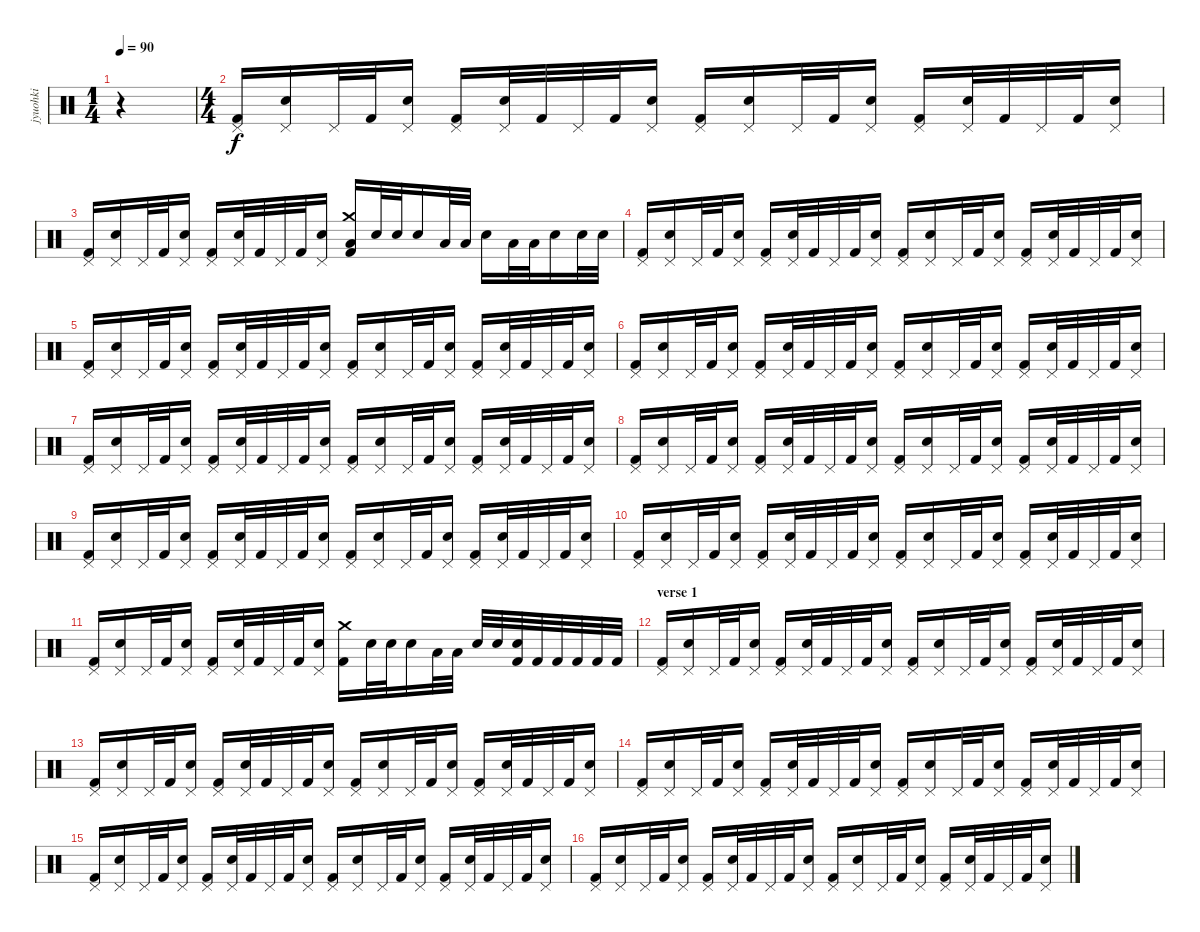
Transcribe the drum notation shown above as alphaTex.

\track ("jyuohki" "jyuohki") {instrument percussion}
\staff {score}
\articulation defaults
\ts (1 4)
\tempo 90
\clef neutral
\ks c
r.4{dy f} |
\ts (4 4)
("Pedal Hi-Hat (hit)" "Kick (hit) 2").16 ("Pedal Hi-Hat (hit)" "Electric Snare (hit)").16 "Pedal Hi-Hat (hit)".32 "Kick (hit) 2".32 ("Pedal Hi-Hat (hit)" "Electric Snare (hit)").16 ("Pedal Hi-Hat (hit)" "Kick (hit) 2").16 ("Pedal Hi-Hat (hit)" "Electric Snare (hit)").32 "Kick (hit) 2".32 "Pedal Hi-Hat (hit)".32 "Kick (hit) 2".32 ("Pedal Hi-Hat (hit)" "Electric Snare (hit)").16 ("Pedal Hi-Hat (hit)" "Kick (hit) 2").16 ("Pedal Hi-Hat (hit)" "Electric Snare (hit)").16 "Pedal Hi-Hat (hit)".32 "Kick (hit) 2".32 ("Pedal Hi-Hat (hit)" "Electric Snare (hit)").16 ("Pedal Hi-Hat (hit)" "Kick (hit) 2").16 ("Pedal Hi-Hat (hit)" "Electric Snare (hit)").32 "Kick (hit) 2".32 "Pedal Hi-Hat (hit)".32 "Kick (hit) 2".32 ("Pedal Hi-Hat (hit)" "Electric Snare (hit)").16 |
("Pedal Hi-Hat (hit)" "Kick (hit) 2").16 ("Pedal Hi-Hat (hit)" "Electric Snare (hit)").16 "Pedal Hi-Hat (hit)".32 "Kick (hit) 2".32 ("Pedal Hi-Hat (hit)" "Electric Snare (hit)").16 ("Pedal Hi-Hat (hit)" "Kick (hit) 2").16 ("Pedal Hi-Hat (hit)" "Electric Snare (hit)").32 "Kick (hit) 2".32 "Pedal Hi-Hat (hit)".32 "Kick (hit) 2".32 ("Pedal Hi-Hat (hit)" "Electric Snare (hit)").16 ("Crash medium (hit)" "Low Floor Tom (hit)" "Kick (hit) 2").16 "Electric Snare (hit)".32 "Electric Snare (hit)".32 "Electric Snare (hit)".16 "Low Floor Tom (hit)".32 "Low Floor Tom (hit)".32 "Electric Snare (hit)".16 "Low Floor Tom (hit)".32 "Low Floor Tom (hit)".32 "Electric Snare (hit)".16 "Electric Snare (hit)".32 "Electric Snare (hit)".32 |
\section ("" "")
("Pedal Hi-Hat (hit)" "Kick (hit) 2").16 ("Pedal Hi-Hat (hit)" "Electric Snare (hit)").16 "Pedal Hi-Hat (hit)".32 "Kick (hit) 2".32 ("Pedal Hi-Hat (hit)" "Electric Snare (hit)").16 ("Pedal Hi-Hat (hit)" "Kick (hit) 2").16 ("Pedal Hi-Hat (hit)" "Electric Snare (hit)").32 "Kick (hit) 2".32 "Pedal Hi-Hat (hit)".32 "Kick (hit) 2".32 ("Pedal Hi-Hat (hit)" "Electric Snare (hit)").16 ("Pedal Hi-Hat (hit)" "Kick (hit) 2").16 ("Pedal Hi-Hat (hit)" "Electric Snare (hit)").16 "Pedal Hi-Hat (hit)".32 "Kick (hit) 2".32 ("Pedal Hi-Hat (hit)" "Electric Snare (hit)").16 ("Pedal Hi-Hat (hit)" "Kick (hit) 2").16 ("Pedal Hi-Hat (hit)" "Electric Snare (hit)").32 "Kick (hit) 2".32 "Pedal Hi-Hat (hit)".32 "Kick (hit) 2".32 ("Pedal Hi-Hat (hit)" "Electric Snare (hit)").16 |
("Pedal Hi-Hat (hit)" "Kick (hit) 2").16 ("Pedal Hi-Hat (hit)" "Electric Snare (hit)").16 "Pedal Hi-Hat (hit)".32 "Kick (hit) 2".32 ("Pedal Hi-Hat (hit)" "Electric Snare (hit)").16 ("Pedal Hi-Hat (hit)" "Kick (hit) 2").16 ("Pedal Hi-Hat (hit)" "Electric Snare (hit)").32 "Kick (hit) 2".32 "Pedal Hi-Hat (hit)".32 "Kick (hit) 2".32 ("Pedal Hi-Hat (hit)" "Electric Snare (hit)").16 ("Pedal Hi-Hat (hit)" "Kick (hit) 2").16 ("Pedal Hi-Hat (hit)" "Electric Snare (hit)").16 "Pedal Hi-Hat (hit)".32 "Kick (hit) 2".32 ("Pedal Hi-Hat (hit)" "Electric Snare (hit)").16 ("Pedal Hi-Hat (hit)" "Kick (hit) 2").16 ("Pedal Hi-Hat (hit)" "Electric Snare (hit)").32 "Kick (hit) 2".32 "Pedal Hi-Hat (hit)".32 "Kick (hit) 2".32 ("Pedal Hi-Hat (hit)" "Electric Snare (hit)").16 |
("Pedal Hi-Hat (hit)" "Kick (hit) 2").16 ("Pedal Hi-Hat (hit)" "Electric Snare (hit)").16 "Pedal Hi-Hat (hit)".32 "Kick (hit) 2".32 ("Pedal Hi-Hat (hit)" "Electric Snare (hit)").16 ("Pedal Hi-Hat (hit)" "Kick (hit) 2").16 ("Pedal Hi-Hat (hit)" "Electric Snare (hit)").32 "Kick (hit) 2".32 "Pedal Hi-Hat (hit)".32 "Kick (hit) 2".32 ("Pedal Hi-Hat (hit)" "Electric Snare (hit)").16 ("Pedal Hi-Hat (hit)" "Kick (hit) 2").16 ("Pedal Hi-Hat (hit)" "Electric Snare (hit)").16 "Pedal Hi-Hat (hit)".32 "Kick (hit) 2".32 ("Pedal Hi-Hat (hit)" "Electric Snare (hit)").16 ("Pedal Hi-Hat (hit)" "Kick (hit) 2").16 ("Pedal Hi-Hat (hit)" "Electric Snare (hit)").32 "Kick (hit) 2".32 "Pedal Hi-Hat (hit)".32 "Kick (hit) 2".32 ("Pedal Hi-Hat (hit)" "Electric Snare (hit)").16 |
("Pedal Hi-Hat (hit)" "Kick (hit) 2").16 ("Pedal Hi-Hat (hit)" "Electric Snare (hit)").16 "Pedal Hi-Hat (hit)".32 "Kick (hit) 2".32 ("Pedal Hi-Hat (hit)" "Electric Snare (hit)").16 ("Pedal Hi-Hat (hit)" "Kick (hit) 2").16 ("Pedal Hi-Hat (hit)" "Electric Snare (hit)").32 "Kick (hit) 2".32 "Pedal Hi-Hat (hit)".32 "Kick (hit) 2".32 ("Pedal Hi-Hat (hit)" "Electric Snare (hit)").16 ("Pedal Hi-Hat (hit)" "Kick (hit) 2").16 ("Pedal Hi-Hat (hit)" "Electric Snare (hit)").16 "Pedal Hi-Hat (hit)".32 "Kick (hit) 2".32 ("Pedal Hi-Hat (hit)" "Electric Snare (hit)").16 ("Pedal Hi-Hat (hit)" "Kick (hit) 2").16 ("Pedal Hi-Hat (hit)" "Electric Snare (hit)").32 "Kick (hit) 2".32 "Pedal Hi-Hat (hit)".32 "Kick (hit) 2".32 ("Pedal Hi-Hat (hit)" "Electric Snare (hit)").16 |
("Pedal Hi-Hat (hit)" "Kick (hit) 2").16 ("Pedal Hi-Hat (hit)" "Electric Snare (hit)").16 "Pedal Hi-Hat (hit)".32 "Kick (hit) 2".32 ("Pedal Hi-Hat (hit)" "Electric Snare (hit)").16 ("Pedal Hi-Hat (hit)" "Kick (hit) 2").16 ("Pedal Hi-Hat (hit)" "Electric Snare (hit)").32 "Kick (hit) 2".32 "Pedal Hi-Hat (hit)".32 "Kick (hit) 2".32 ("Pedal Hi-Hat (hit)" "Electric Snare (hit)").16 ("Pedal Hi-Hat (hit)" "Kick (hit) 2").16 ("Pedal Hi-Hat (hit)" "Electric Snare (hit)").16 "Pedal Hi-Hat (hit)".32 "Kick (hit) 2".32 ("Pedal Hi-Hat (hit)" "Electric Snare (hit)").16 ("Pedal Hi-Hat (hit)" "Kick (hit) 2").16 ("Pedal Hi-Hat (hit)" "Electric Snare (hit)").32 "Kick (hit) 2".32 "Pedal Hi-Hat (hit)".32 "Kick (hit) 2".32 ("Pedal Hi-Hat (hit)" "Electric Snare (hit)").16 |
("Pedal Hi-Hat (hit)" "Kick (hit) 2").16 ("Pedal Hi-Hat (hit)" "Electric Snare (hit)").16 "Pedal Hi-Hat (hit)".32 "Kick (hit) 2".32 ("Pedal Hi-Hat (hit)" "Electric Snare (hit)").16 ("Pedal Hi-Hat (hit)" "Kick (hit) 2").16 ("Pedal Hi-Hat (hit)" "Electric Snare (hit)").32 "Kick (hit) 2".32 "Pedal Hi-Hat (hit)".32 "Kick (hit) 2".32 ("Pedal Hi-Hat (hit)" "Electric Snare (hit)").16 ("Pedal Hi-Hat (hit)" "Kick (hit) 2").16 ("Pedal Hi-Hat (hit)" "Electric Snare (hit)").16 "Pedal Hi-Hat (hit)".32 "Kick (hit) 2".32 ("Pedal Hi-Hat (hit)" "Electric Snare (hit)").16 ("Pedal Hi-Hat (hit)" "Kick (hit) 2").16 ("Pedal Hi-Hat (hit)" "Electric Snare (hit)").32 "Kick (hit) 2".32 "Pedal Hi-Hat (hit)".32 "Kick (hit) 2".32 ("Pedal Hi-Hat (hit)" "Electric Snare (hit)").16 |
("Pedal Hi-Hat (hit)" "Kick (hit) 2").16 ("Pedal Hi-Hat (hit)" "Electric Snare (hit)").16 "Pedal Hi-Hat (hit)".32 "Kick (hit) 2".32 ("Pedal Hi-Hat (hit)" "Electric Snare (hit)").16 ("Pedal Hi-Hat (hit)" "Kick (hit) 2").16 ("Pedal Hi-Hat (hit)" "Electric Snare (hit)").32 "Kick (hit) 2".32 "Pedal Hi-Hat (hit)".32 "Kick (hit) 2".32 ("Pedal Hi-Hat (hit)" "Electric Snare (hit)").16 ("Pedal Hi-Hat (hit)" "Kick (hit) 2").16 ("Pedal Hi-Hat (hit)" "Electric Snare (hit)").16 "Pedal Hi-Hat (hit)".32 "Kick (hit) 2".32 ("Pedal Hi-Hat (hit)" "Electric Snare (hit)").16 ("Pedal Hi-Hat (hit)" "Kick (hit) 2").16 ("Pedal Hi-Hat (hit)" "Electric Snare (hit)").32 "Kick (hit) 2".32 "Pedal Hi-Hat (hit)".32 "Kick (hit) 2".32 ("Pedal Hi-Hat (hit)" "Electric Snare (hit)").16 |
("Pedal Hi-Hat (hit)" "Kick (hit) 2").16 ("Pedal Hi-Hat (hit)" "Electric Snare (hit)").16 "Pedal Hi-Hat (hit)".32 "Kick (hit) 2".32 ("Pedal Hi-Hat (hit)" "Electric Snare (hit)").16 ("Pedal Hi-Hat (hit)" "Kick (hit) 2").16 ("Pedal Hi-Hat (hit)" "Electric Snare (hit)").32 "Kick (hit) 2".32 "Pedal Hi-Hat (hit)".32 "Kick (hit) 2".32 ("Pedal Hi-Hat (hit)" "Electric Snare (hit)").16 ("Crash medium (hit)" "Kick (hit) 2").16 "Electric Snare (hit)".32 "Electric Snare (hit)".32 "Electric Snare (hit)".16 "Low Floor Tom (hit)".32 "Low Floor Tom (hit)".32 "Electric Snare (hit)".32 "Electric Snare (hit)".32 ("Electric Snare (hit)" "Kick (hit) 2").32 "Kick (hit) 2".32 "Kick (hit) 2".32 "Kick (hit) 2".32 "Kick (hit) 2".32 "Kick (hit) 2".32 |
\section ("" "verse 1")
("Pedal Hi-Hat (hit)" "Kick (hit) 2").16 ("Pedal Hi-Hat (hit)" "Electric Snare (hit)").16 "Pedal Hi-Hat (hit)".32 "Kick (hit) 2".32 ("Pedal Hi-Hat (hit)" "Electric Snare (hit)").16 ("Pedal Hi-Hat (hit)" "Kick (hit) 2").16 ("Pedal Hi-Hat (hit)" "Electric Snare (hit)").32 "Kick (hit) 2".32 "Pedal Hi-Hat (hit)".32 "Kick (hit) 2".32 ("Pedal Hi-Hat (hit)" "Electric Snare (hit)").16 ("Pedal Hi-Hat (hit)" "Kick (hit) 2").16 ("Pedal Hi-Hat (hit)" "Electric Snare (hit)").16 "Pedal Hi-Hat (hit)".32 "Kick (hit) 2".32 ("Pedal Hi-Hat (hit)" "Electric Snare (hit)").16 ("Pedal Hi-Hat (hit)" "Kick (hit) 2").16 ("Pedal Hi-Hat (hit)" "Electric Snare (hit)").32 "Kick (hit) 2".32 "Pedal Hi-Hat (hit)".32 "Kick (hit) 2".32 ("Pedal Hi-Hat (hit)" "Electric Snare (hit)").16 |
("Pedal Hi-Hat (hit)" "Kick (hit) 2").16 ("Pedal Hi-Hat (hit)" "Electric Snare (hit)").16 "Pedal Hi-Hat (hit)".32 "Kick (hit) 2".32 ("Pedal Hi-Hat (hit)" "Electric Snare (hit)").16 ("Pedal Hi-Hat (hit)" "Kick (hit) 2").16 ("Pedal Hi-Hat (hit)" "Electric Snare (hit)").32 "Kick (hit) 2".32 "Pedal Hi-Hat (hit)".32 "Kick (hit) 2".32 ("Pedal Hi-Hat (hit)" "Electric Snare (hit)").16 ("Pedal Hi-Hat (hit)" "Kick (hit) 2").16 ("Pedal Hi-Hat (hit)" "Electric Snare (hit)").16 "Pedal Hi-Hat (hit)".32 "Kick (hit) 2".32 ("Pedal Hi-Hat (hit)" "Electric Snare (hit)").16 ("Pedal Hi-Hat (hit)" "Kick (hit) 2").16 ("Pedal Hi-Hat (hit)" "Electric Snare (hit)").32 "Kick (hit) 2".32 "Pedal Hi-Hat (hit)".32 "Kick (hit) 2".32 ("Pedal Hi-Hat (hit)" "Electric Snare (hit)").16 |
("Pedal Hi-Hat (hit)" "Kick (hit) 2").16 ("Pedal Hi-Hat (hit)" "Electric Snare (hit)").16 "Pedal Hi-Hat (hit)".32 "Kick (hit) 2".32 ("Pedal Hi-Hat (hit)" "Electric Snare (hit)").16 ("Pedal Hi-Hat (hit)" "Kick (hit) 2").16 ("Pedal Hi-Hat (hit)" "Electric Snare (hit)").32 "Kick (hit) 2".32 "Pedal Hi-Hat (hit)".32 "Kick (hit) 2".32 ("Pedal Hi-Hat (hit)" "Electric Snare (hit)").16 ("Pedal Hi-Hat (hit)" "Kick (hit) 2").16 ("Pedal Hi-Hat (hit)" "Electric Snare (hit)").16 "Pedal Hi-Hat (hit)".32 "Kick (hit) 2".32 ("Pedal Hi-Hat (hit)" "Electric Snare (hit)").16 ("Pedal Hi-Hat (hit)" "Kick (hit) 2").16 ("Pedal Hi-Hat (hit)" "Electric Snare (hit)").32 "Kick (hit) 2".32 "Pedal Hi-Hat (hit)".32 "Kick (hit) 2".32 ("Pedal Hi-Hat (hit)" "Electric Snare (hit)").16 |
("Pedal Hi-Hat (hit)" "Kick (hit) 2").16 ("Pedal Hi-Hat (hit)" "Electric Snare (hit)").16 "Pedal Hi-Hat (hit)".32 "Kick (hit) 2".32 ("Pedal Hi-Hat (hit)" "Electric Snare (hit)").16 ("Pedal Hi-Hat (hit)" "Kick (hit) 2").16 ("Pedal Hi-Hat (hit)" "Electric Snare (hit)").32 "Kick (hit) 2".32 "Pedal Hi-Hat (hit)".32 "Kick (hit) 2".32 ("Pedal Hi-Hat (hit)" "Electric Snare (hit)").16 ("Pedal Hi-Hat (hit)" "Kick (hit) 2").16 ("Pedal Hi-Hat (hit)" "Electric Snare (hit)").16 "Pedal Hi-Hat (hit)".32 "Kick (hit) 2".32 ("Pedal Hi-Hat (hit)" "Electric Snare (hit)").16 ("Pedal Hi-Hat (hit)" "Kick (hit) 2").16 ("Pedal Hi-Hat (hit)" "Electric Snare (hit)").32 "Kick (hit) 2".32 "Pedal Hi-Hat (hit)".32 "Kick (hit) 2".32 ("Pedal Hi-Hat (hit)" "Electric Snare (hit)").16 |
("Pedal Hi-Hat (hit)" "Kick (hit) 2").16 ("Pedal Hi-Hat (hit)" "Electric Snare (hit)").16 "Pedal Hi-Hat (hit)".32 "Kick (hit) 2".32 ("Pedal Hi-Hat (hit)" "Electric Snare (hit)").16 ("Pedal Hi-Hat (hit)" "Kick (hit) 2").16 ("Pedal Hi-Hat (hit)" "Electric Snare (hit)").32 "Kick (hit) 2".32 "Pedal Hi-Hat (hit)".32 "Kick (hit) 2".32 ("Pedal Hi-Hat (hit)" "Electric Snare (hit)").16 ("Pedal Hi-Hat (hit)" "Kick (hit) 2").16 ("Pedal Hi-Hat (hit)" "Electric Snare (hit)").16 "Pedal Hi-Hat (hit)".32 "Kick (hit) 2".32 ("Pedal Hi-Hat (hit)" "Electric Snare (hit)").16 ("Pedal Hi-Hat (hit)" "Kick (hit) 2").16 ("Pedal Hi-Hat (hit)" "Electric Snare (hit)").32 "Kick (hit) 2".32 "Pedal Hi-Hat (hit)".32 "Kick (hit) 2".32 ("Pedal Hi-Hat (hit)" "Electric Snare (hit)").16
